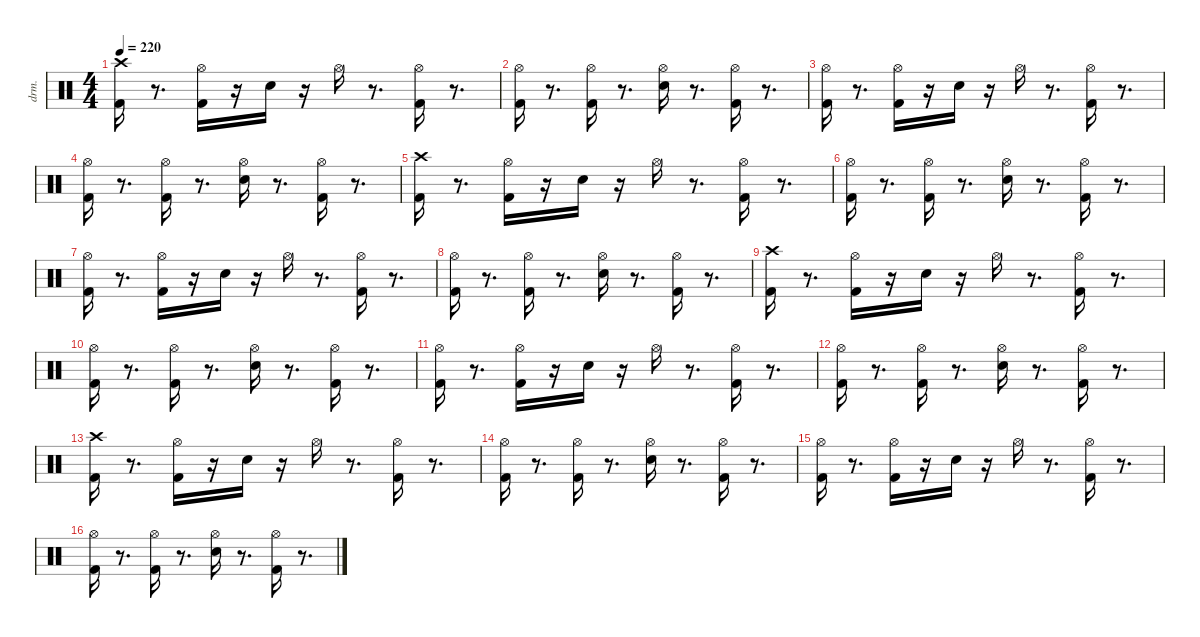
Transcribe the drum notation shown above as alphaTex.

\defaultSystemsLayout 4
\hideDynamics
\bracketExtendMode nobrackets
\otherSystemsTrackNameOrientation horizontal
\track ("EZdrummer 3" "drm.") {instrument percussion}
\staff {score}
\articulation defaults
\ts (4 4)
\tempo 220
\clef neutral
\ks c
("Kick (hit) 2" "Crash high (hit)"{acc #}).16{dy fff beam Down} r.8{d beam Down} ("Kick (hit) 2" "Hi-Hat (open)"{acc #}).16{dy ff beam Down} r.16{beam Down} "Snare (hit) 2".16{beam Down} r.16{beam Down} "Hi-Hat (open)"{acc #}.16{beam Down} r.8{d beam Down} ("Kick (hit) 2" "Hi-Hat (open)"{acc #}).16{beam Down} r.8{d beam Down} |
("Kick (hit) 2" "Hi-Hat (open)"{acc #}).16{beam Down} r.8{d beam Down} ("Kick (hit) 2" "Hi-Hat (open)"{acc #}).16{beam Down} r.8{d beam Down} ("Snare (hit) 2" "Hi-Hat (open)"{acc #}).16{beam Down} r.8{d beam Down} ("Kick (hit) 2" "Hi-Hat (open)"{acc #}).16{dy mf beam Down} r.8{d beam Down} |
("Kick (hit) 2" "Hi-Hat (open)"{acc #}).16{dy fff beam Down} r.8{d beam Down} ("Kick (hit) 2" "Hi-Hat (open)"{acc #}).16{dy ff beam Down} r.16{beam Down} "Snare (hit) 2".16{beam Down} r.16{beam Down} "Hi-Hat (open)"{acc #}.16{beam Down} r.8{d beam Down} ("Kick (hit) 2" "Hi-Hat (open)"{acc #}).16{beam Down} r.8{d beam Down} |
("Kick (hit) 2" "Hi-Hat (open)"{acc #}).16{beam Down} r.8{d beam Down} ("Kick (hit) 2" "Hi-Hat (open)"{acc #}).16{beam Down} r.8{d beam Down} ("Snare (hit) 2" "Hi-Hat (open)"{acc #}).16{beam Down} r.8{d beam Down} ("Kick (hit) 2" "Hi-Hat (open)"{acc #}).16{dy mf beam Down} r.8{d beam Down} |
("Kick (hit) 2" "Crash high (hit)"{acc #}).16{dy fff beam Down} r.8{d beam Down} ("Kick (hit) 2" "Hi-Hat (open)"{acc #}).16{dy ff beam Down} r.16{beam Down} "Snare (hit) 2".16{beam Down} r.16{beam Down} "Hi-Hat (open)"{acc #}.16{beam Down} r.8{d beam Down} ("Kick (hit) 2" "Hi-Hat (open)"{acc #}).16{beam Down} r.8{d beam Down} |
("Kick (hit) 2" "Hi-Hat (open)"{acc #}).16{beam Down} r.8{d beam Down} ("Kick (hit) 2" "Hi-Hat (open)"{acc #}).16{beam Down} r.8{d beam Down} ("Snare (hit) 2" "Hi-Hat (open)"{acc #}).16{beam Down} r.8{d beam Down} ("Kick (hit) 2" "Hi-Hat (open)"{acc #}).16{dy mf beam Down} r.8{d beam Down} |
("Kick (hit) 2" "Hi-Hat (open)"{acc #}).16{dy fff beam Down} r.8{d beam Down} ("Kick (hit) 2" "Hi-Hat (open)"{acc #}).16{dy ff beam Down} r.16{beam Down} "Snare (hit) 2".16{beam Down} r.16{beam Down} "Hi-Hat (open)"{acc #}.16{beam Down} r.8{d beam Down} ("Kick (hit) 2" "Hi-Hat (open)"{acc #}).16{beam Down} r.8{d beam Down} |
("Kick (hit) 2" "Hi-Hat (open)"{acc #}).16{beam Down} r.8{d beam Down} ("Kick (hit) 2" "Hi-Hat (open)"{acc #}).16{beam Down} r.8{d beam Down} ("Snare (hit) 2" "Hi-Hat (open)"{acc #}).16{beam Down} r.8{d beam Down} ("Kick (hit) 2" "Hi-Hat (open)"{acc #}).16{dy mf beam Down} r.8{d beam Down} |
("Kick (hit) 2" "Crash high (hit)"{acc #}).16{dy fff beam Down} r.8{d beam Down} ("Kick (hit) 2" "Hi-Hat (open)"{acc #}).16{dy ff beam Down} r.16{beam Down} "Snare (hit) 2".16{beam Down} r.16{beam Down} "Hi-Hat (open)"{acc #}.16{beam Down} r.8{d beam Down} ("Kick (hit) 2" "Hi-Hat (open)"{acc #}).16{beam Down} r.8{d beam Down} |
("Kick (hit) 2" "Hi-Hat (open)"{acc #}).16{beam Down} r.8{d beam Down} ("Kick (hit) 2" "Hi-Hat (open)"{acc #}).16{beam Down} r.8{d beam Down} ("Snare (hit) 2" "Hi-Hat (open)"{acc #}).16{beam Down} r.8{d beam Down} ("Kick (hit) 2" "Hi-Hat (open)"{acc #}).16{dy mf beam Down} r.8{d beam Down} |
("Kick (hit) 2" "Hi-Hat (open)"{acc #}).16{dy fff beam Down} r.8{d beam Down} ("Kick (hit) 2" "Hi-Hat (open)"{acc #}).16{dy ff beam Down} r.16{beam Down} "Snare (hit) 2".16{beam Down} r.16{beam Down} "Hi-Hat (open)"{acc #}.16{beam Down} r.8{d beam Down} ("Kick (hit) 2" "Hi-Hat (open)"{acc #}).16{beam Down} r.8{d beam Down} |
("Kick (hit) 2" "Hi-Hat (open)"{acc #}).16{beam Down} r.8{d beam Down} ("Kick (hit) 2" "Hi-Hat (open)"{acc #}).16{beam Down} r.8{d beam Down} ("Snare (hit) 2" "Hi-Hat (open)"{acc #}).16{beam Down} r.8{d beam Down} ("Kick (hit) 2" "Hi-Hat (open)"{acc #}).16{dy mf beam Down} r.8{d beam Down} |
("Kick (hit) 2" "Crash high (hit)"{acc #}).16{dy fff beam Down} r.8{d beam Down} ("Kick (hit) 2" "Hi-Hat (open)"{acc #}).16{dy ff beam Down} r.16{beam Down} "Snare (hit) 2".16{beam Down} r.16{beam Down} "Hi-Hat (open)"{acc #}.16{beam Down} r.8{d beam Down} ("Kick (hit) 2" "Hi-Hat (open)"{acc #}).16{beam Down} r.8{d beam Down} |
("Kick (hit) 2" "Hi-Hat (open)"{acc #}).16{beam Down} r.8{d beam Down} ("Kick (hit) 2" "Hi-Hat (open)"{acc #}).16{beam Down} r.8{d beam Down} ("Snare (hit) 2" "Hi-Hat (open)"{acc #}).16{beam Down} r.8{d beam Down} ("Kick (hit) 2" "Hi-Hat (open)"{acc #}).16{dy mf beam Down} r.8{d beam Down} |
("Kick (hit) 2" "Hi-Hat (open)"{acc #}).16{dy fff beam Down} r.8{d beam Down} ("Kick (hit) 2" "Hi-Hat (open)"{acc #}).16{dy ff beam Down} r.16{beam Down} "Snare (hit) 2".16{beam Down} r.16{beam Down} "Hi-Hat (open)"{acc #}.16{beam Down} r.8{d beam Down} ("Kick (hit) 2" "Hi-Hat (open)"{acc #}).16{beam Down} r.8{d beam Down} |
("Kick (hit) 2" "Hi-Hat (open)"{acc #}).16{beam Down} r.8{d beam Down} ("Kick (hit) 2" "Hi-Hat (open)"{acc #}).16{beam Down} r.8{d beam Down} ("Snare (hit) 2" "Hi-Hat (open)"{acc #}).16{beam Down} r.8{d beam Down} ("Kick (hit) 2" "Hi-Hat (open)"{acc #}).16{dy mf beam Down} r.8{d beam Down}
